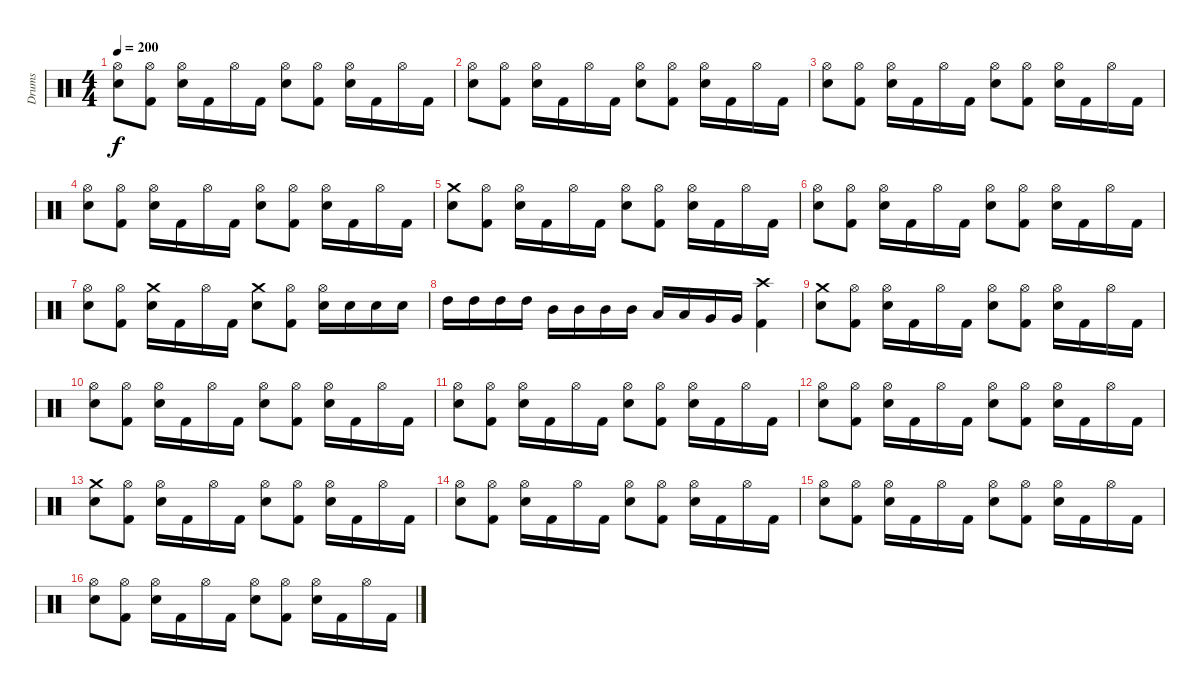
\track ("Drums" "Drums") {instrument percussion}
\staff {score}
\articulation defaults
\ts (4 4)
\tempo 200
\clef neutral
\ks c
("Hi-Hat (open)" "Snare (hit) 2").8{dy f volume 0} ("Hi-Hat (open)" "Kick (hit) 2").8 ("Hi-Hat (open)" "Snare (hit) 2").16 "Kick (hit) 2".16 "Hi-Hat (open)".16 "Kick (hit) 2".16 ("Hi-Hat (open)" "Snare (hit) 2").8{volume 13} ("Hi-Hat (open)" "Kick (hit) 2").8 ("Hi-Hat (open)" "Snare (hit) 2").16 "Kick (hit) 2".16 "Hi-Hat (open)".16 "Kick (hit) 2".16 |
("Hi-Hat (open)" "Snare (hit) 2").8 ("Hi-Hat (open)" "Kick (hit) 2").8 ("Hi-Hat (open)" "Snare (hit) 2").16 "Kick (hit) 2".16 "Hi-Hat (open)".16 "Kick (hit) 2".16 ("Hi-Hat (open)" "Snare (hit) 2").8 ("Hi-Hat (open)" "Kick (hit) 2").8 ("Hi-Hat (open)" "Snare (hit) 2").16 "Kick (hit) 2".16 "Hi-Hat (open)".16 "Kick (hit) 2".16 |
("Hi-Hat (open)" "Snare (hit) 2").8 ("Hi-Hat (open)" "Kick (hit) 2").8 ("Hi-Hat (open)" "Snare (hit) 2").16 "Kick (hit) 2".16 "Hi-Hat (open)".16 "Kick (hit) 2".16 ("Hi-Hat (open)" "Snare (hit) 2").8 ("Hi-Hat (open)" "Kick (hit) 2").8 ("Hi-Hat (open)" "Snare (hit) 2").16 "Kick (hit) 2".16 "Hi-Hat (open)".16 "Kick (hit) 2".16 |
("Hi-Hat (open)" "Snare (hit) 2").8 ("Hi-Hat (open)" "Kick (hit) 2").8 ("Hi-Hat (open)" "Snare (hit) 2").16 "Kick (hit) 2".16 "Hi-Hat (open)".16 "Kick (hit) 2".16 ("Hi-Hat (open)" "Snare (hit) 2").8 ("Hi-Hat (open)" "Kick (hit) 2").8 ("Hi-Hat (open)" "Snare (hit) 2").16 "Kick (hit) 2".16 "Hi-Hat (open)".16 "Kick (hit) 2".16 |
("Crash medium (hit)" "Snare (hit) 2").8 ("Hi-Hat (open)" "Kick (hit) 2").8 ("Hi-Hat (open)" "Snare (hit) 2").16 "Kick (hit) 2".16 "Hi-Hat (open)".16 "Kick (hit) 2".16 ("Hi-Hat (open)" "Snare (hit) 2").8 ("Hi-Hat (open)" "Kick (hit) 2").8 ("Hi-Hat (open)" "Snare (hit) 2").16 "Kick (hit) 2".16 "Hi-Hat (open)".16 "Kick (hit) 2".16 |
("Hi-Hat (open)" "Snare (hit) 2").8 ("Hi-Hat (open)" "Kick (hit) 2").8 ("Hi-Hat (open)" "Snare (hit) 2").16 "Kick (hit) 2".16 "Hi-Hat (open)".16 "Kick (hit) 2".16 ("Hi-Hat (open)" "Snare (hit) 2").8 ("Hi-Hat (open)" "Kick (hit) 2").8 ("Hi-Hat (open)" "Snare (hit) 2").16 "Kick (hit) 2".16 "Hi-Hat (open)".16 "Kick (hit) 2".16 |
("Hi-Hat (open)" "Snare (hit) 2").8 ("Hi-Hat (open)" "Kick (hit) 2").8 ("Crash medium (hit)" "Snare (hit) 2").16 "Kick (hit) 2".16 "Hi-Hat (open)".16 "Kick (hit) 2".16 ("Crash medium (hit)" "Snare (hit) 2").8 ("Hi-Hat (open)" "Kick (hit) 2").8 ("Hi-Hat (open)" "Snare (hit) 2").16 "Snare (hit) 2".16 "Snare (hit) 2".16 "Snare (hit) 2".16 |
"High Tom (hit)".16 "High Tom (hit)".16 "High Tom (hit)".16 "High Tom (hit)".16 "Mid Tom (hit)".16 "Mid Tom (hit)".16 "Mid Tom (hit)".16 "Mid Tom (hit)".16 "Low Tom (hit)".16 "Low Tom (hit)".16 "Very Low Tom (hit)".16 "Very Low Tom (hit)".16 ("Crash high (hit)" "Kick (hit) 2").4 |
("Crash medium (hit)" "Snare (hit) 2").8 ("Hi-Hat (open)" "Kick (hit) 2").8 ("Hi-Hat (open)" "Snare (hit) 2").16 "Kick (hit) 2".16 "Hi-Hat (open)".16 "Kick (hit) 2".16 ("Hi-Hat (open)" "Snare (hit) 2").8 ("Hi-Hat (open)" "Kick (hit) 2").8 ("Hi-Hat (open)" "Snare (hit) 2").16 "Kick (hit) 2".16 "Hi-Hat (open)".16 "Kick (hit) 2".16 |
("Hi-Hat (open)" "Snare (hit) 2").8 ("Hi-Hat (open)" "Kick (hit) 2").8 ("Hi-Hat (open)" "Snare (hit) 2").16 "Kick (hit) 2".16 "Hi-Hat (open)".16 "Kick (hit) 2".16 ("Hi-Hat (open)" "Snare (hit) 2").8 ("Hi-Hat (open)" "Kick (hit) 2").8 ("Hi-Hat (open)" "Snare (hit) 2").16 "Kick (hit) 2".16 "Hi-Hat (open)".16 "Kick (hit) 2".16 |
("Hi-Hat (open)" "Snare (hit) 2").8 ("Hi-Hat (open)" "Kick (hit) 2").8 ("Hi-Hat (open)" "Snare (hit) 2").16 "Kick (hit) 2".16 "Hi-Hat (open)".16 "Kick (hit) 2".16 ("Hi-Hat (open)" "Snare (hit) 2").8 ("Hi-Hat (open)" "Kick (hit) 2").8 ("Hi-Hat (open)" "Snare (hit) 2").16 "Kick (hit) 2".16 "Hi-Hat (open)".16 "Kick (hit) 2".16 |
("Hi-Hat (open)" "Snare (hit) 2").8 ("Hi-Hat (open)" "Kick (hit) 2").8 ("Hi-Hat (open)" "Snare (hit) 2").16 "Kick (hit) 2".16 "Hi-Hat (open)".16 "Kick (hit) 2".16 ("Hi-Hat (open)" "Snare (hit) 2").8 ("Hi-Hat (open)" "Kick (hit) 2").8 ("Hi-Hat (open)" "Snare (hit) 2").16 "Kick (hit) 2".16 "Hi-Hat (open)".16 "Kick (hit) 2".16 |
("Crash medium (hit)" "Snare (hit) 2").8 ("Hi-Hat (open)" "Kick (hit) 2").8 ("Hi-Hat (open)" "Snare (hit) 2").16 "Kick (hit) 2".16 "Hi-Hat (open)".16 "Kick (hit) 2".16 ("Hi-Hat (open)" "Snare (hit) 2").8 ("Hi-Hat (open)" "Kick (hit) 2").8 ("Hi-Hat (open)" "Snare (hit) 2").16 "Kick (hit) 2".16 "Hi-Hat (open)".16 "Kick (hit) 2".16 |
("Hi-Hat (open)" "Snare (hit) 2").8 ("Hi-Hat (open)" "Kick (hit) 2").8 ("Hi-Hat (open)" "Snare (hit) 2").16 "Kick (hit) 2".16 "Hi-Hat (open)".16 "Kick (hit) 2".16 ("Hi-Hat (open)" "Snare (hit) 2").8 ("Hi-Hat (open)" "Kick (hit) 2").8 ("Hi-Hat (open)" "Snare (hit) 2").16 "Kick (hit) 2".16 "Hi-Hat (open)".16 "Kick (hit) 2".16 |
("Hi-Hat (open)" "Snare (hit) 2").8 ("Hi-Hat (open)" "Kick (hit) 2").8 ("Hi-Hat (open)" "Snare (hit) 2").16 "Kick (hit) 2".16 "Hi-Hat (open)".16 "Kick (hit) 2".16 ("Hi-Hat (open)" "Snare (hit) 2").8 ("Hi-Hat (open)" "Kick (hit) 2").8 ("Hi-Hat (open)" "Snare (hit) 2").16 "Kick (hit) 2".16 "Hi-Hat (open)".16 "Kick (hit) 2".16 |
("Hi-Hat (open)" "Snare (hit) 2").8 ("Hi-Hat (open)" "Kick (hit) 2").8 ("Hi-Hat (open)" "Snare (hit) 2").16 "Kick (hit) 2".16 "Hi-Hat (open)".16 "Kick (hit) 2".16 ("Hi-Hat (open)" "Snare (hit) 2").8 ("Hi-Hat (open)" "Kick (hit) 2").8 ("Hi-Hat (open)" "Snare (hit) 2").16 "Kick (hit) 2".16 "Hi-Hat (open)".16 "Kick (hit) 2".16
